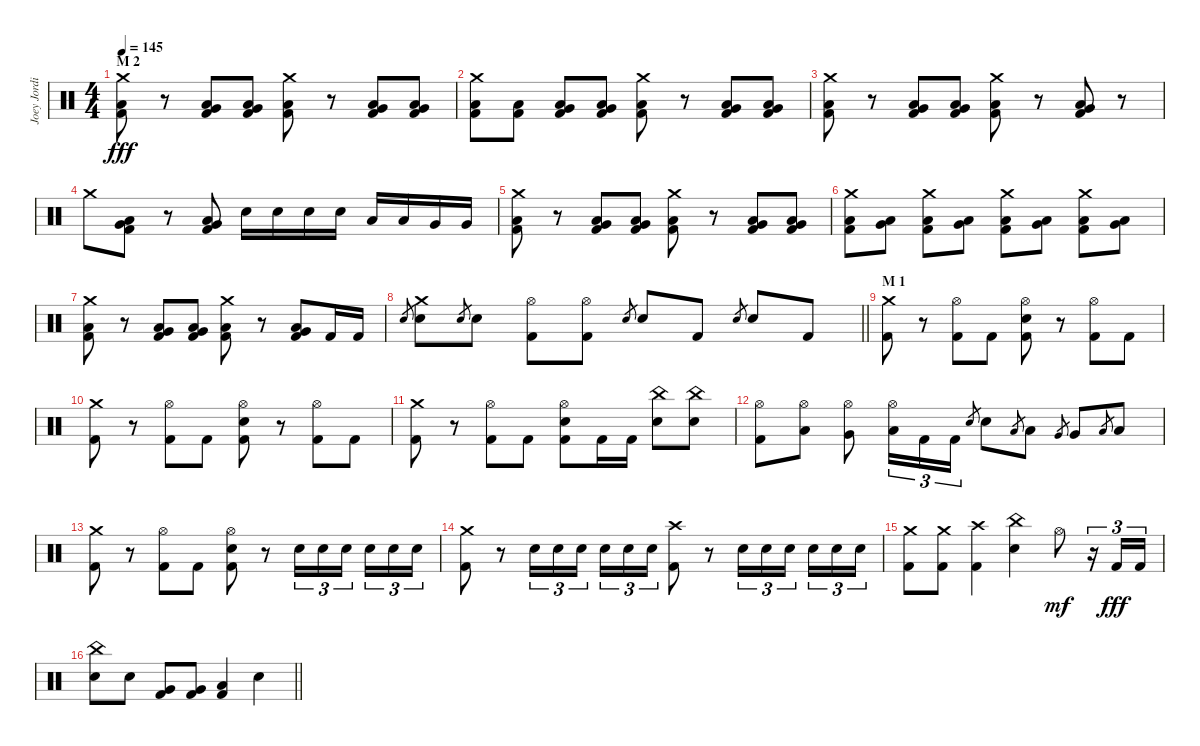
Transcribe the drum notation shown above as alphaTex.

\track ("Joey Jordison" "Joey Jordi") {instrument percussion}
\staff {score}
\articulation defaults
\ts (4 4)
\section ("" "M 2")
\tempo 145
\clef neutral
\ks c
("Crash medium (hit)" "Low Floor Tom (hit)" "Kick (hit) 2").8{dy fff} r.8 ("Very Low Tom (hit)" "Low Floor Tom (hit)" "Kick (hit) 2").8 ("Very Low Tom (hit)" "Low Floor Tom (hit)" "Kick (hit) 2").8 ("Crash medium (hit)" "Low Floor Tom (hit)" "Kick (hit) 2").8 r.8 ("Very Low Tom (hit)" "Low Floor Tom (hit)" "Kick (hit) 2").8 ("Very Low Tom (hit)" "Low Floor Tom (hit)" "Kick (hit) 2").8 |
("Crash medium (hit)" "Low Floor Tom (hit)" "Kick (hit) 2").8 ("Low Floor Tom (hit)" "Kick (hit) 2").8 ("Very Low Tom (hit)" "Low Floor Tom (hit)" "Kick (hit) 2").8 ("Very Low Tom (hit)" "Low Floor Tom (hit)" "Kick (hit) 2").8 ("Crash medium (hit)" "Low Floor Tom (hit)" "Kick (hit) 2").8 r.8 ("Very Low Tom (hit)" "Low Floor Tom (hit)" "Kick (hit) 2").8 ("Very Low Tom (hit)" "Low Floor Tom (hit)" "Kick (hit) 2").8 |
("Crash medium (hit)" "Low Floor Tom (hit)" "Kick (hit) 2").8 r.8 ("Very Low Tom (hit)" "Low Floor Tom (hit)" "Kick (hit) 2").8 ("Very Low Tom (hit)" "Low Floor Tom (hit)" "Kick (hit) 2").8 ("Crash medium (hit)" "Low Floor Tom (hit)" "Kick (hit) 2").8 r.8 ("Very Low Tom (hit)" "Low Floor Tom (hit)" "Kick (hit) 2").8 r.8 |
"Crash medium (hit)".8 ("Very Low Tom (hit)" "Low Floor Tom (hit)" "Kick (hit) 2").8 r.8 ("Very Low Tom (hit)" "Low Floor Tom (hit)" "Kick (hit) 2").8 "Electric Snare (hit)".16 "Electric Snare (hit)".16 "Electric Snare (hit)".16 "Electric Snare (hit)".16 "Low Tom (hit)".16 "Low Tom (hit)".16 "Very Low Tom (hit)".16 "Very Low Tom (hit)".16 |
("Crash medium (hit)" "Low Floor Tom (hit)" "Kick (hit) 2").8 r.8 ("Very Low Tom (hit)" "Low Floor Tom (hit)" "Kick (hit) 2").8 ("Very Low Tom (hit)" "Low Floor Tom (hit)" "Kick (hit) 2").8 ("Crash medium (hit)" "Low Floor Tom (hit)" "Kick (hit) 2").8 r.8 ("Very Low Tom (hit)" "Low Floor Tom (hit)" "Kick (hit) 2").8 ("Very Low Tom (hit)" "Low Floor Tom (hit)" "Kick (hit) 2").8 |
("Crash medium (hit)" "Low Floor Tom (hit)" "Kick (hit) 2").8 ("Very Low Tom (hit)" "Low Floor Tom (hit)").8 ("Crash medium (hit)" "Low Floor Tom (hit)" "Kick (hit) 2").8 ("Very Low Tom (hit)" "Low Floor Tom (hit)").8 ("Crash medium (hit)" "Low Floor Tom (hit)" "Kick (hit) 2").8 ("Very Low Tom (hit)" "Low Floor Tom (hit)").8 ("Crash medium (hit)" "Low Floor Tom (hit)" "Kick (hit) 2").8 ("Very Low Tom (hit)" "Low Floor Tom (hit)").8 |
("Crash medium (hit)" "Low Floor Tom (hit)" "Kick (hit) 2").8 r.8 ("Very Low Tom (hit)" "Low Floor Tom (hit)" "Kick (hit) 2").8 ("Very Low Tom (hit)" "Low Floor Tom (hit)" "Kick (hit) 2").8 ("Crash medium (hit)" "Low Floor Tom (hit)" "Kick (hit) 2").8 r.8 ("Very Low Tom (hit)" "Low Floor Tom (hit)" "Kick (hit) 2").8 "Kick (hit) 2".16 "Kick (hit) 2".16 |
\barLineRight lightlight "Electric Snare (hit)".8{gr}
("Crash medium (hit)" "Electric Snare (hit)").8 "Electric Snare (hit)".8{gr} "Electric Snare (hit)".8 ("Hi-Hat (open)" "Kick (hit) 2").8 ("Hi-Hat (open)" "Kick (hit) 2").8 "Electric Snare (hit)".8{gr} "Electric Snare (hit)".8 "Kick (hit) 2".8 "Electric Snare (hit)".8{gr} "Electric Snare (hit)".8 "Kick (hit) 2".8 |
\section ("" "M 1")
("Crash medium (hit)" "Kick (hit) 2").8 r.8 ("Hi-Hat (open)" "Kick (hit) 2").8 "Kick (hit) 2".8 ("Hi-Hat (open)" "Electric Snare (hit)" "Kick (hit) 2").8 r.8 ("Hi-Hat (open)" "Kick (hit) 2").8 "Kick (hit) 2".8 |
("Crash medium (hit)" "Kick (hit) 2").8 r.8 ("Hi-Hat (open)" "Kick (hit) 2").8 "Kick (hit) 2".8 ("Hi-Hat (open)" "Electric Snare (hit)" "Kick (hit) 2").8 r.8 ("Hi-Hat (open)" "Kick (hit) 2").8 "Kick (hit) 2".8 |
("Crash medium (hit)" "Kick (hit) 2").8 r.8 ("Hi-Hat (open)" "Kick (hit) 2").8 "Kick (hit) 2".8 ("Hi-Hat (open)" "Electric Snare (hit)" "Kick (hit) 2").8 "Kick (hit) 2".16 "Kick (hit) 2".16 ("China (hit)" "Electric Snare (hit)").8 ("China (hit)" "Electric Snare (hit)").8 |
("Hi-Hat (open)" "Kick (hit) 2").8 ("Hi-Hat (open)" "Low Tom (hit)").8 ("Hi-Hat (open)" "Very Low Tom (hit)").8 ("Hi-Hat (open)" "Low Floor Tom (hit)").16{tu (3 2)} "Kick (hit) 2".16{tu (3 2)} "Kick (hit) 2".16{tu (3 2)} "Electric Snare (hit)".8{gr} "Electric Snare (hit)".8 "Low Tom (hit)".8{gr} "Low Tom (hit)".8 "Very Low Tom (hit)".8{gr} "Very Low Tom (hit)".8 "Low Floor Tom (hit)".8{gr} "Low Floor Tom (hit)".8 |
("Crash medium (hit)" "Kick (hit) 2").8 r.8 ("Hi-Hat (open)" "Kick (hit) 2").8 "Kick (hit) 2".8 ("Hi-Hat (open)" "Electric Snare (hit)" "Kick (hit) 2").8 r.8 "Electric Snare (hit)".16{tu (3 2)} "Electric Snare (hit)".16{tu (3 2)} "Electric Snare (hit)".16{tu (3 2) beam splitsecondary} "Electric Snare (hit)".16{tu (3 2)} "Electric Snare (hit)".16{tu (3 2)} "Electric Snare (hit)".16{tu (3 2)} |
("Crash medium (hit)" "Kick (hit) 2").8 r.8 "Electric Snare (hit)".16{tu (3 2)} "Electric Snare (hit)".16{tu (3 2)} "Electric Snare (hit)".16{tu (3 2) beam splitsecondary} "Electric Snare (hit)".16{tu (3 2)} "Electric Snare (hit)".16{tu (3 2)} "Electric Snare (hit)".16{tu (3 2)} ("Crash high (hit)" "Kick (hit) 2").8 r.8 "Electric Snare (hit)".16{tu (3 2)} "Electric Snare (hit)".16{tu (3 2)} "Electric Snare (hit)".16{tu (3 2) beam splitsecondary} "Electric Snare (hit)".16{tu (3 2)} "Electric Snare (hit)".16{tu (3 2)} "Electric Snare (hit)".16{tu (3 2)} |
("Crash medium (hit)" "Kick (hit) 2").8 ("Crash medium (hit)" "Kick (hit) 2").8 ("Crash high (hit)" "Kick (hit) 2").4 ("China (hit)" "Electric Snare (hit)").4 "Hi-Hat (open)".8{dy mf} r.16{tu (3 2)} "Kick (hit) 2".16{tu (3 2) dy fff} "Kick (hit) 2".16{tu (3 2)} |
\barLineRight lightlight
("China (hit)" "Electric Snare (hit)").8 "Electric Snare (hit)".8 ("Very Low Tom (hit)" "Kick (hit) 2").8 ("Very Low Tom (hit)" "Kick (hit) 2").8 ("Low Floor Tom (hit)" "Kick (hit) 2").4 "Electric Snare (hit)".4
